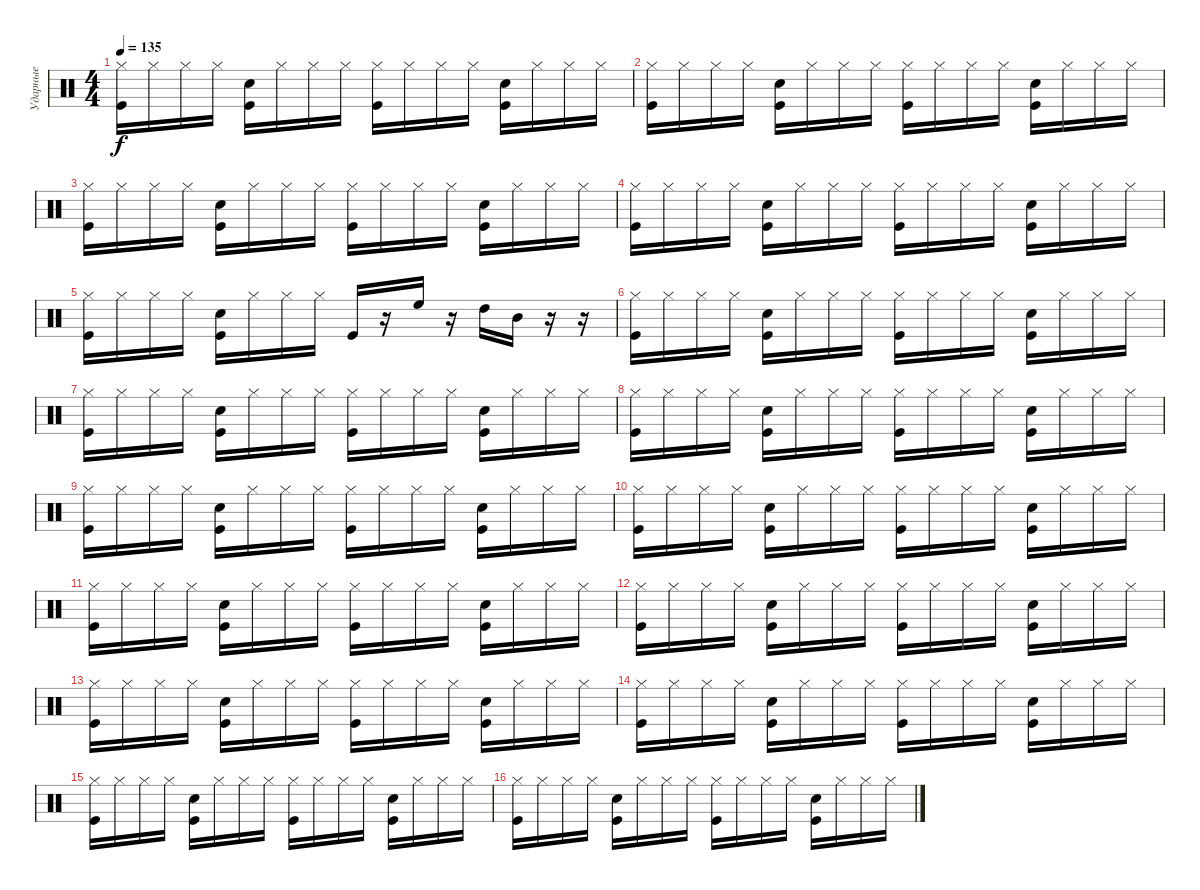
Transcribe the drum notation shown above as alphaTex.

\track ("Ударные" "Ударные") {instrument percussion}
\staff {score}
\articulation defaults
\ts (4 4)
\tempo 135
\clef neutral
\ks c
("Hi-Hat (closed)" "Kick (hit)").16{dy f} "Hi-Hat (closed)".16 "Hi-Hat (closed)".16 "Hi-Hat (closed)".16 ("Kick (hit)" "Snare (hit) 2").16 "Hi-Hat (closed)".16 "Hi-Hat (closed)".16 "Hi-Hat (closed)".16 ("Hi-Hat (closed)" "Kick (hit)").16 "Hi-Hat (closed)".16 "Hi-Hat (closed)".16 "Hi-Hat (closed)".16 ("Kick (hit)" "Snare (hit) 2").16 "Hi-Hat (closed)".16 "Hi-Hat (closed)".16 "Hi-Hat (closed)".16 |
("Hi-Hat (closed)" "Kick (hit)").16 "Hi-Hat (closed)".16 "Hi-Hat (closed)".16 "Hi-Hat (closed)".16 ("Kick (hit)" "Snare (hit) 2").16 "Hi-Hat (closed)".16 "Hi-Hat (closed)".16 "Hi-Hat (closed)".16 ("Hi-Hat (closed)" "Kick (hit)").16 "Hi-Hat (closed)".16 "Hi-Hat (closed)".16 "Hi-Hat (closed)".16 ("Kick (hit)" "Snare (hit) 2").16 "Hi-Hat (closed)".16 "Hi-Hat (closed)".16 "Hi-Hat (closed)".16 |
("Hi-Hat (closed)" "Kick (hit)").16 "Hi-Hat (closed)".16 "Hi-Hat (closed)".16 "Hi-Hat (closed)".16 ("Kick (hit)" "Snare (hit) 2").16 "Hi-Hat (closed)".16 "Hi-Hat (closed)".16 "Hi-Hat (closed)".16 ("Hi-Hat (closed)" "Kick (hit)").16 "Hi-Hat (closed)".16 "Hi-Hat (closed)".16 "Hi-Hat (closed)".16 ("Kick (hit)" "Snare (hit) 2").16 "Hi-Hat (closed)".16 "Hi-Hat (closed)".16 "Hi-Hat (closed)".16 |
("Hi-Hat (closed)" "Kick (hit)").16 "Hi-Hat (closed)".16 "Hi-Hat (closed)".16 "Hi-Hat (closed)".16 ("Kick (hit)" "Snare (hit) 2").16 "Hi-Hat (closed)".16 "Hi-Hat (closed)".16 "Hi-Hat (closed)".16 ("Hi-Hat (closed)" "Kick (hit)").16 "Hi-Hat (closed)".16 "Hi-Hat (closed)".16 "Hi-Hat (closed)".16 ("Kick (hit)" "Snare (hit) 2").16 "Hi-Hat (closed)".16 "Hi-Hat (closed)".16 "Hi-Hat (closed)".16 |
("Hi-Hat (closed)" "Kick (hit)").16 "Hi-Hat (closed)".16 "Hi-Hat (closed)".16 "Hi-Hat (closed)".16 ("Kick (hit)" "Snare (hit) 2").16 "Hi-Hat (closed)".16 "Hi-Hat (closed)".16 "Hi-Hat (closed)".16 "Kick (hit)".16 r.16 "High Floor Tom (hit)".16 r.16 "High Tom (hit)".16 "Mid Tom (hit)".16 r.16 r.16 |
("Hi-Hat (closed)" "Kick (hit)").16 "Hi-Hat (closed)".16 "Hi-Hat (closed)".16 "Hi-Hat (closed)".16 ("Kick (hit)" "Snare (hit) 2").16 "Hi-Hat (closed)".16 "Hi-Hat (closed)".16 "Hi-Hat (closed)".16 ("Hi-Hat (closed)" "Kick (hit)").16 "Hi-Hat (closed)".16 "Hi-Hat (closed)".16 "Hi-Hat (closed)".16 ("Kick (hit)" "Snare (hit) 2").16 "Hi-Hat (closed)".16 "Hi-Hat (closed)".16 "Hi-Hat (closed)".16 |
("Hi-Hat (closed)" "Kick (hit)").16 "Hi-Hat (closed)".16 "Hi-Hat (closed)".16 "Hi-Hat (closed)".16 ("Kick (hit)" "Snare (hit) 2").16 "Hi-Hat (closed)".16 "Hi-Hat (closed)".16 "Hi-Hat (closed)".16 ("Hi-Hat (closed)" "Kick (hit)").16 "Hi-Hat (closed)".16 "Hi-Hat (closed)".16 "Hi-Hat (closed)".16 ("Kick (hit)" "Snare (hit) 2").16 "Hi-Hat (closed)".16 "Hi-Hat (closed)".16 "Hi-Hat (closed)".16 |
("Hi-Hat (closed)" "Kick (hit)").16 "Hi-Hat (closed)".16 "Hi-Hat (closed)".16 "Hi-Hat (closed)".16 ("Kick (hit)" "Snare (hit) 2").16 "Hi-Hat (closed)".16 "Hi-Hat (closed)".16 "Hi-Hat (closed)".16 ("Hi-Hat (closed)" "Kick (hit)").16 "Hi-Hat (closed)".16 "Hi-Hat (closed)".16 "Hi-Hat (closed)".16 ("Kick (hit)" "Snare (hit) 2").16 "Hi-Hat (closed)".16 "Hi-Hat (closed)".16 "Hi-Hat (closed)".16 |
("Hi-Hat (closed)" "Kick (hit)").16 "Hi-Hat (closed)".16 "Hi-Hat (closed)".16 "Hi-Hat (closed)".16 ("Kick (hit)" "Snare (hit) 2").16 "Hi-Hat (closed)".16 "Hi-Hat (closed)".16 "Hi-Hat (closed)".16 ("Hi-Hat (closed)" "Kick (hit)").16 "Hi-Hat (closed)".16 "Hi-Hat (closed)".16 "Hi-Hat (closed)".16 ("Kick (hit)" "Snare (hit) 2").16 "Hi-Hat (closed)".16 "Hi-Hat (closed)".16 "Hi-Hat (closed)".16 |
("Hi-Hat (closed)" "Kick (hit)").16 "Hi-Hat (closed)".16 "Hi-Hat (closed)".16 "Hi-Hat (closed)".16 ("Kick (hit)" "Snare (hit) 2").16 "Hi-Hat (closed)".16 "Hi-Hat (closed)".16 "Hi-Hat (closed)".16 ("Hi-Hat (closed)" "Kick (hit)").16 "Hi-Hat (closed)".16 "Hi-Hat (closed)".16 "Hi-Hat (closed)".16 ("Kick (hit)" "Snare (hit) 2").16 "Hi-Hat (closed)".16 "Hi-Hat (closed)".16 "Hi-Hat (closed)".16 |
("Hi-Hat (closed)" "Kick (hit)").16 "Hi-Hat (closed)".16 "Hi-Hat (closed)".16 "Hi-Hat (closed)".16 ("Kick (hit)" "Snare (hit) 2").16 "Hi-Hat (closed)".16 "Hi-Hat (closed)".16 "Hi-Hat (closed)".16 ("Hi-Hat (closed)" "Kick (hit)").16 "Hi-Hat (closed)".16 "Hi-Hat (closed)".16 "Hi-Hat (closed)".16 ("Kick (hit)" "Snare (hit) 2").16 "Hi-Hat (closed)".16 "Hi-Hat (closed)".16 "Hi-Hat (closed)".16 |
("Hi-Hat (closed)" "Kick (hit)").16 "Hi-Hat (closed)".16 "Hi-Hat (closed)".16 "Hi-Hat (closed)".16 ("Kick (hit)" "Snare (hit) 2").16 "Hi-Hat (closed)".16 "Hi-Hat (closed)".16 "Hi-Hat (closed)".16 ("Hi-Hat (closed)" "Kick (hit)").16 "Hi-Hat (closed)".16 "Hi-Hat (closed)".16 "Hi-Hat (closed)".16 ("Kick (hit)" "Snare (hit) 2").16 "Hi-Hat (closed)".16 "Hi-Hat (closed)".16 "Hi-Hat (closed)".16 |
("Hi-Hat (closed)" "Kick (hit)").16 "Hi-Hat (closed)".16 "Hi-Hat (closed)".16 "Hi-Hat (closed)".16 ("Kick (hit)" "Snare (hit) 2").16 "Hi-Hat (closed)".16 "Hi-Hat (closed)".16 "Hi-Hat (closed)".16 ("Hi-Hat (closed)" "Kick (hit)").16 "Hi-Hat (closed)".16 "Hi-Hat (closed)".16 "Hi-Hat (closed)".16 ("Kick (hit)" "Snare (hit) 2").16 "Hi-Hat (closed)".16 "Hi-Hat (closed)".16 "Hi-Hat (closed)".16 |
("Hi-Hat (closed)" "Kick (hit)").16 "Hi-Hat (closed)".16 "Hi-Hat (closed)".16 "Hi-Hat (closed)".16 ("Kick (hit)" "Snare (hit) 2").16 "Hi-Hat (closed)".16 "Hi-Hat (closed)".16 "Hi-Hat (closed)".16 ("Hi-Hat (closed)" "Kick (hit)").16 "Hi-Hat (closed)".16 "Hi-Hat (closed)".16 "Hi-Hat (closed)".16 ("Kick (hit)" "Snare (hit) 2").16 "Hi-Hat (closed)".16 "Hi-Hat (closed)".16 "Hi-Hat (closed)".16 |
("Hi-Hat (closed)" "Kick (hit)").16 "Hi-Hat (closed)".16 "Hi-Hat (closed)".16 "Hi-Hat (closed)".16 ("Kick (hit)" "Snare (hit) 2").16 "Hi-Hat (closed)".16 "Hi-Hat (closed)".16 "Hi-Hat (closed)".16 ("Hi-Hat (closed)" "Kick (hit)").16 "Hi-Hat (closed)".16 "Hi-Hat (closed)".16 "Hi-Hat (closed)".16 ("Kick (hit)" "Snare (hit) 2").16 "Hi-Hat (closed)".16 "Hi-Hat (closed)".16 "Hi-Hat (closed)".16 |
("Hi-Hat (closed)" "Kick (hit)").16 "Hi-Hat (closed)".16 "Hi-Hat (closed)".16 "Hi-Hat (closed)".16 ("Kick (hit)" "Snare (hit) 2").16 "Hi-Hat (closed)".16 "Hi-Hat (closed)".16 "Hi-Hat (closed)".16 ("Hi-Hat (closed)" "Kick (hit)").16 "Hi-Hat (closed)".16 "Hi-Hat (closed)".16 "Hi-Hat (closed)".16 ("Kick (hit)" "Snare (hit) 2").16 "Hi-Hat (closed)".16 "Hi-Hat (closed)".16 "Hi-Hat (closed)".16
